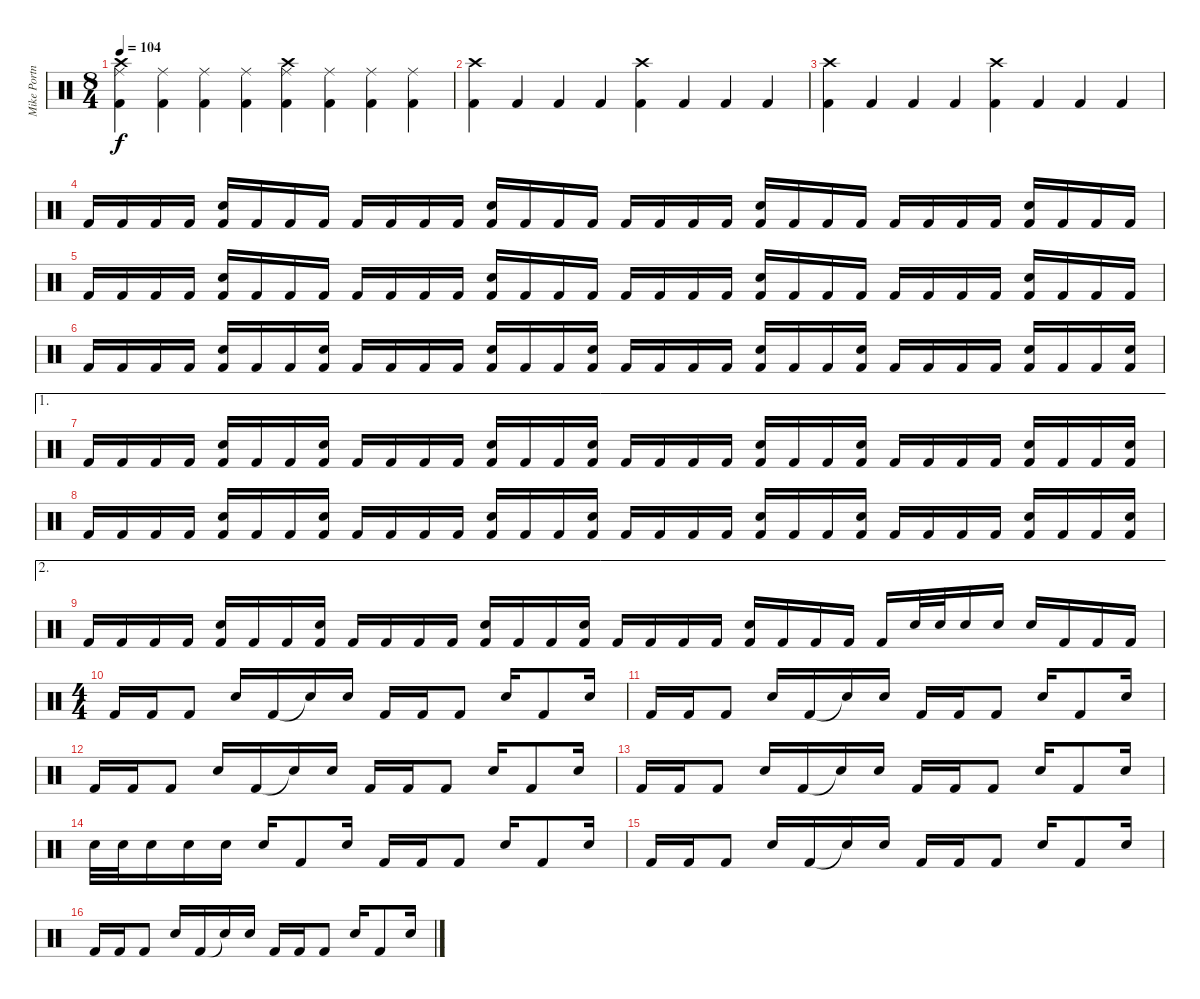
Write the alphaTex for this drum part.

\track ("Mike Portnoy" "Mike Portn") {instrument percussion}
\staff {score}
\articulation defaults
\ts (8 4)
\tempo 104
\clef neutral
\ks c
("Ride (middle)" "Crash high (hit)" "Kick (hit) 2").4{dy f} ("Ride (middle)" "Kick (hit) 2").4 ("Ride (middle)" "Kick (hit) 2").4 ("Ride (middle)" "Kick (hit) 2").4 ("Ride (middle)" "Crash high (hit)" "Kick (hit) 2").4 ("Ride (middle)" "Kick (hit) 2").4 ("Ride (middle)" "Kick (hit) 2").4 ("Ride (middle)" "Kick (hit) 2").4 |
("Crash high (hit)" "Kick (hit) 2").4 "Kick (hit) 2".4 "Kick (hit) 2".4 "Kick (hit) 2".4 ("Crash high (hit)" "Kick (hit) 2").4 "Kick (hit) 2".4 "Kick (hit) 2".4 "Kick (hit) 2".4 |
("Crash high (hit)" "Kick (hit) 2").4 "Kick (hit) 2".4 "Kick (hit) 2".4 "Kick (hit) 2".4 ("Crash high (hit)" "Kick (hit) 2").4 "Kick (hit) 2".4 "Kick (hit) 2".4 "Kick (hit) 2".4 |
"Kick (hit) 2".16 "Kick (hit) 2".16 "Kick (hit) 2".16 "Kick (hit) 2".16 ("Electric Snare (hit)" "Kick (hit) 2").16 "Kick (hit) 2".16 "Kick (hit) 2".16 "Kick (hit) 2".16 "Kick (hit) 2".16 "Kick (hit) 2".16 "Kick (hit) 2".16 "Kick (hit) 2".16 ("Electric Snare (hit)" "Kick (hit) 2").16 "Kick (hit) 2".16 "Kick (hit) 2".16 "Kick (hit) 2".16 "Kick (hit) 2".16 "Kick (hit) 2".16 "Kick (hit) 2".16 "Kick (hit) 2".16 ("Electric Snare (hit)" "Kick (hit) 2").16 "Kick (hit) 2".16 "Kick (hit) 2".16 "Kick (hit) 2".16 "Kick (hit) 2".16 "Kick (hit) 2".16 "Kick (hit) 2".16 "Kick (hit) 2".16 ("Electric Snare (hit)" "Kick (hit) 2").16 "Kick (hit) 2".16 "Kick (hit) 2".16 "Kick (hit) 2".16 |
"Kick (hit) 2".16 "Kick (hit) 2".16 "Kick (hit) 2".16 "Kick (hit) 2".16 ("Electric Snare (hit)" "Kick (hit) 2").16 "Kick (hit) 2".16 "Kick (hit) 2".16 "Kick (hit) 2".16 "Kick (hit) 2".16 "Kick (hit) 2".16 "Kick (hit) 2".16 "Kick (hit) 2".16 ("Electric Snare (hit)" "Kick (hit) 2").16 "Kick (hit) 2".16 "Kick (hit) 2".16 "Kick (hit) 2".16 "Kick (hit) 2".16 "Kick (hit) 2".16 "Kick (hit) 2".16 "Kick (hit) 2".16 ("Electric Snare (hit)" "Kick (hit) 2").16 "Kick (hit) 2".16 "Kick (hit) 2".16 "Kick (hit) 2".16 "Kick (hit) 2".16 "Kick (hit) 2".16 "Kick (hit) 2".16 "Kick (hit) 2".16 ("Electric Snare (hit)" "Kick (hit) 2").16 "Kick (hit) 2".16 "Kick (hit) 2".16 "Kick (hit) 2".16 |
"Kick (hit) 2".16 "Kick (hit) 2".16 "Kick (hit) 2".16 "Kick (hit) 2".16 ("Snare (hit) 2" "Kick (hit) 2").16 "Kick (hit) 2".16 "Kick (hit) 2".16 ("Snare (hit) 2" "Kick (hit) 2").16 "Kick (hit) 2".16 "Kick (hit) 2".16 "Kick (hit) 2".16 "Kick (hit) 2".16 ("Snare (hit) 2" "Kick (hit) 2").16 "Kick (hit) 2".16 "Kick (hit) 2".16 ("Snare (hit) 2" "Kick (hit) 2").16 "Kick (hit) 2".16 "Kick (hit) 2".16 "Kick (hit) 2".16 "Kick (hit) 2".16 ("Snare (hit) 2" "Kick (hit) 2").16 "Kick (hit) 2".16 "Kick (hit) 2".16 ("Snare (hit) 2" "Kick (hit) 2").16 "Kick (hit) 2".16 "Kick (hit) 2".16 "Kick (hit) 2".16 "Kick (hit) 2".16 ("Snare (hit) 2" "Kick (hit) 2").16 "Kick (hit) 2".16 "Kick (hit) 2".16 ("Snare (hit) 2" "Kick (hit) 2").16 |
\ae 1 "Kick (hit) 2".16 "Kick (hit) 2".16 "Kick (hit) 2".16 "Kick (hit) 2".16
("Snare (hit) 2" "Kick (hit) 2").16 "Kick (hit) 2".16 "Kick (hit) 2".16 ("Snare (hit) 2" "Kick (hit) 2").16 "Kick (hit) 2".16 "Kick (hit) 2".16 "Kick (hit) 2".16 "Kick (hit) 2".16 ("Snare (hit) 2" "Kick (hit) 2").16 "Kick (hit) 2".16 "Kick (hit) 2".16 ("Snare (hit) 2" "Kick (hit) 2").16 "Kick (hit) 2".16 "Kick (hit) 2".16 "Kick (hit) 2".16 "Kick (hit) 2".16 ("Snare (hit) 2" "Kick (hit) 2").16 "Kick (hit) 2".16 "Kick (hit) 2".16 ("Snare (hit) 2" "Kick (hit) 2").16 "Kick (hit) 2".16 "Kick (hit) 2".16 "Kick (hit) 2".16 "Kick (hit) 2".16 ("Snare (hit) 2" "Kick (hit) 2").16 "Kick (hit) 2".16 "Kick (hit) 2".16 ("Snare (hit) 2" "Kick (hit) 2").16 |
"Kick (hit) 2".16 "Kick (hit) 2".16 "Kick (hit) 2".16 "Kick (hit) 2".16 ("Snare (hit) 2" "Kick (hit) 2").16 "Kick (hit) 2".16 "Kick (hit) 2".16 ("Snare (hit) 2" "Kick (hit) 2").16 "Kick (hit) 2".16 "Kick (hit) 2".16 "Kick (hit) 2".16 "Kick (hit) 2".16 ("Snare (hit) 2" "Kick (hit) 2").16 "Kick (hit) 2".16 "Kick (hit) 2".16 ("Snare (hit) 2" "Kick (hit) 2").16 "Kick (hit) 2".16 "Kick (hit) 2".16 "Kick (hit) 2".16 "Kick (hit) 2".16 ("Snare (hit) 2" "Kick (hit) 2").16 "Kick (hit) 2".16 "Kick (hit) 2".16 ("Snare (hit) 2" "Kick (hit) 2").16 "Kick (hit) 2".16 "Kick (hit) 2".16 "Kick (hit) 2".16 "Kick (hit) 2".16 ("Snare (hit) 2" "Kick (hit) 2").16 "Kick (hit) 2".16 "Kick (hit) 2".16 ("Snare (hit) 2" "Kick (hit) 2").16 |
\ae 2 "Kick (hit) 2".16 "Kick (hit) 2".16 "Kick (hit) 2".16 "Kick (hit) 2".16
("Snare (hit) 2" "Kick (hit) 2").16 "Kick (hit) 2".16 "Kick (hit) 2".16 ("Snare (hit) 2" "Kick (hit) 2").16 "Kick (hit) 2".16 "Kick (hit) 2".16 "Kick (hit) 2".16 "Kick (hit) 2".16 ("Snare (hit) 2" "Kick (hit) 2").16 "Kick (hit) 2".16 "Kick (hit) 2".16 ("Snare (hit) 2" "Kick (hit) 2").16 "Kick (hit) 2".16 "Kick (hit) 2".16 "Kick (hit) 2".16 "Kick (hit) 2".16 ("Snare (hit) 2" "Kick (hit) 2").16 "Kick (hit) 2".16 "Kick (hit) 2".16 "Kick (hit) 2".16 "Kick (hit) 2".16 "Snare (hit) 2".32 "Snare (hit) 2".32 "Snare (hit) 2".16 "Snare (hit) 2".16 "Snare (hit) 2".16 "Kick (hit) 2".16 "Kick (hit) 2".16 "Kick (hit) 2".16 |
\ts (4 4)
"Kick (hit) 2".16 "Kick (hit) 2".16 "Kick (hit) 2".8 "Snare (hit) 2".16 "Kick (hit) 2".16 "Snare (hit)"{t}.16 "Snare (hit) 2".16 "Kick (hit) 2".16 "Kick (hit) 2".16 "Kick (hit) 2".8 "Snare (hit) 2".16 "Kick (hit) 2".8 "Snare (hit) 2".16 |
"Kick (hit) 2".16 "Kick (hit) 2".16 "Kick (hit) 2".8 "Snare (hit) 2".16 "Kick (hit) 2".16 "Snare (hit)"{t}.16 "Snare (hit) 2".16 "Kick (hit) 2".16 "Kick (hit) 2".16 "Kick (hit) 2".8 "Snare (hit) 2".16 "Kick (hit) 2".8 "Snare (hit) 2".16 |
"Kick (hit) 2".16 "Kick (hit) 2".16 "Kick (hit) 2".8 "Snare (hit) 2".16 "Kick (hit) 2".16 "Snare (hit)"{t}.16 "Snare (hit) 2".16 "Kick (hit) 2".16 "Kick (hit) 2".16 "Kick (hit) 2".8 "Snare (hit) 2".16 "Kick (hit) 2".8 "Snare (hit) 2".16 |
"Kick (hit) 2".16 "Kick (hit) 2".16 "Kick (hit) 2".8 "Snare (hit) 2".16 "Kick (hit) 2".16 "Snare (hit)"{t}.16 "Snare (hit) 2".16 "Kick (hit) 2".16 "Kick (hit) 2".16 "Kick (hit) 2".8 "Snare (hit) 2".16 "Kick (hit) 2".8 "Snare (hit) 2".16 |
"Snare (hit) 2".32 "Snare (hit) 2".32 "Snare (hit) 2".16 "Snare (hit) 2".16 "Snare (hit) 2".16 "Snare (hit) 2".16 "Kick (hit) 2".8 "Snare (hit) 2".16 "Kick (hit) 2".16 "Kick (hit) 2".16 "Kick (hit) 2".8 "Snare (hit) 2".16 "Kick (hit) 2".8 "Snare (hit) 2".16 |
"Kick (hit) 2".16 "Kick (hit) 2".16 "Kick (hit) 2".8 "Snare (hit) 2".16 "Kick (hit) 2".16 "Snare (hit)"{t}.16 "Snare (hit) 2".16 "Kick (hit) 2".16 "Kick (hit) 2".16 "Kick (hit) 2".8 "Snare (hit) 2".16 "Kick (hit) 2".8 "Snare (hit) 2".16 |
"Kick (hit) 2".16 "Kick (hit) 2".16 "Kick (hit) 2".8 "Snare (hit) 2".16 "Kick (hit) 2".16 "Snare (hit)"{t}.16 "Snare (hit) 2".16 "Kick (hit) 2".16 "Kick (hit) 2".16 "Kick (hit) 2".8 "Snare (hit) 2".16 "Kick (hit) 2".8 "Snare (hit) 2".16
